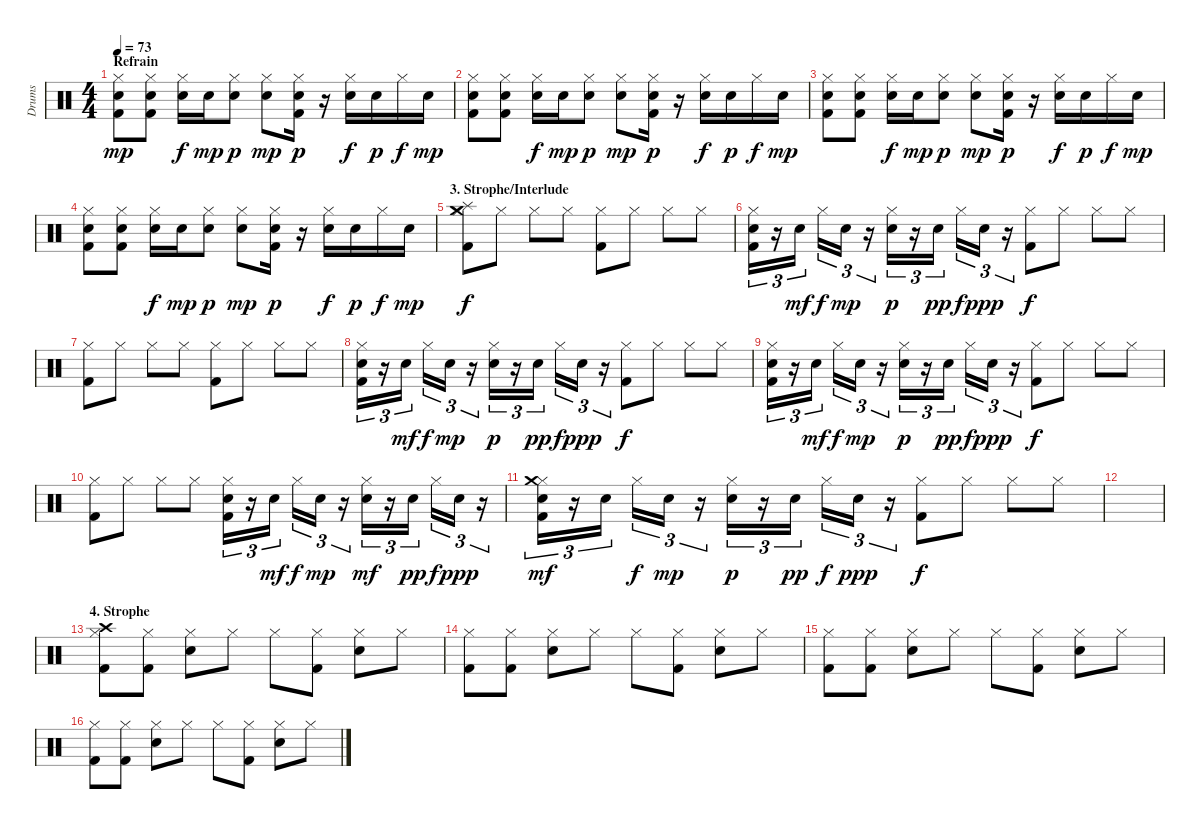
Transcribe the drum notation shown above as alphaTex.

\track ("Drums" "Drums") {instrument percussion}
\staff {score}
\articulation defaults
\ts (4 4)
\section ("" "Refrain")
\tempo 73
\clef neutral
\ks c
("Hi-Hat (closed)" "Electric Snare (hit)" "Kick (hit) 2").8{dy mp} ("Hi-Hat (closed)" "Electric Snare (hit)" "Kick (hit) 2").8 ("Hi-Hat (closed)" "Electric Snare (hit)").16{dy f} "Electric Snare (hit)".16{dy mp} ("Hi-Hat (closed)" "Electric Snare (hit)").8{dy p} ("Hi-Hat (closed)" "Electric Snare (hit)").8{dy mp} ("Hi-Hat (closed)" "Electric Snare (hit)" "Kick (hit) 2").16{dy p} r.16 ("Hi-Hat (closed)" "Electric Snare (hit)").16{dy f} "Electric Snare (hit)".16{dy p} "Hi-Hat (closed)".16{dy f} "Electric Snare (hit)".16{dy mp} |
("Hi-Hat (closed)" "Electric Snare (hit)" "Kick (hit) 2").8 ("Hi-Hat (closed)" "Electric Snare (hit)" "Kick (hit) 2").8 ("Hi-Hat (closed)" "Electric Snare (hit)").16{dy f} "Electric Snare (hit)".16{dy mp} ("Hi-Hat (closed)" "Electric Snare (hit)").8{dy p} ("Hi-Hat (closed)" "Electric Snare (hit)").8{dy mp} ("Hi-Hat (closed)" "Electric Snare (hit)" "Kick (hit) 2").16{dy p} r.16 ("Hi-Hat (closed)" "Electric Snare (hit)").16{dy f} "Electric Snare (hit)".16{dy p} "Hi-Hat (closed)".16{dy f} "Electric Snare (hit)".16{dy mp} |
("Hi-Hat (closed)" "Electric Snare (hit)" "Kick (hit) 2").8 ("Hi-Hat (closed)" "Electric Snare (hit)" "Kick (hit) 2").8 ("Hi-Hat (closed)" "Electric Snare (hit)").16{dy f} "Electric Snare (hit)".16{dy mp} ("Hi-Hat (closed)" "Electric Snare (hit)").8{dy p} ("Hi-Hat (closed)" "Electric Snare (hit)").8{dy mp} ("Hi-Hat (closed)" "Electric Snare (hit)" "Kick (hit) 2").16{dy p} r.16 ("Hi-Hat (closed)" "Electric Snare (hit)").16{dy f} "Electric Snare (hit)".16{dy p} "Hi-Hat (closed)".16{dy f} "Electric Snare (hit)".16{dy mp} |
("Hi-Hat (closed)" "Electric Snare (hit)" "Kick (hit) 2").8 ("Hi-Hat (closed)" "Electric Snare (hit)" "Kick (hit) 2").8 ("Hi-Hat (closed)" "Electric Snare (hit)").16{dy f} "Electric Snare (hit)".16{dy mp} ("Hi-Hat (closed)" "Electric Snare (hit)").8{dy p} ("Hi-Hat (closed)" "Electric Snare (hit)").8{dy mp} ("Hi-Hat (closed)" "Electric Snare (hit)" "Kick (hit) 2").16{dy p} r.16 ("Hi-Hat (closed)" "Electric Snare (hit)").16{dy f} "Electric Snare (hit)".16{dy p} "Hi-Hat (closed)".16{dy f} "Electric Snare (hit)".16{dy mp} |
\section ("" "3. Strophe/Interlude")
("Hi-Hat (closed)" "Crash medium (hit)" "Splash (hit)" "Kick (hit) 2").8{dy f} "Hi-Hat (closed)".8 "Hi-Hat (closed)".8 "Hi-Hat (closed)".8 ("Hi-Hat (closed)" "Kick (hit) 2").8 "Hi-Hat (closed)".8 "Hi-Hat (closed)".8 "Hi-Hat (closed)".8 |
("Hi-Hat (closed)" "Electric Snare (hit)" "Kick (hit) 2").16{tu (3 2)} r.16{tu (3 2)} "Electric Snare (hit)".16{tu (3 2) dy mf} "Hi-Hat (closed)".16{tu (3 2) dy f} "Electric Snare (hit)".16{tu (3 2) dy mp} r.16{tu (3 2)} ("Hi-Hat (closed)" "Electric Snare (hit)").16{tu (3 2) dy p} r.16{tu (3 2)} "Electric Snare (hit)".16{tu (3 2) dy pp} "Hi-Hat (closed)".16{tu (3 2) dy f} "Electric Snare (hit)".16{tu (3 2) dy ppp} r.16{tu (3 2)} ("Hi-Hat (closed)" "Kick (hit) 2").8{dy f} "Hi-Hat (closed)".8 "Hi-Hat (closed)".8 "Hi-Hat (closed)".8 |
("Hi-Hat (closed)" "Kick (hit) 2").8 "Hi-Hat (closed)".8 "Hi-Hat (closed)".8 "Hi-Hat (closed)".8 ("Hi-Hat (closed)" "Kick (hit) 2").8 "Hi-Hat (closed)".8 "Hi-Hat (closed)".8 "Hi-Hat (closed)".8 |
("Hi-Hat (closed)" "Electric Snare (hit)" "Kick (hit) 2").16{tu (3 2)} r.16{tu (3 2)} "Electric Snare (hit)".16{tu (3 2) dy mf} "Hi-Hat (closed)".16{tu (3 2) dy f} "Electric Snare (hit)".16{tu (3 2) dy mp} r.16{tu (3 2)} ("Hi-Hat (closed)" "Electric Snare (hit)").16{tu (3 2) dy p} r.16{tu (3 2)} "Electric Snare (hit)".16{tu (3 2) dy pp} "Hi-Hat (closed)".16{tu (3 2) dy f} "Electric Snare (hit)".16{tu (3 2) dy ppp} r.16{tu (3 2)} ("Hi-Hat (closed)" "Kick (hit) 2").8{dy f} "Hi-Hat (closed)".8 "Hi-Hat (closed)".8 "Hi-Hat (closed)".8 |
("Hi-Hat (closed)" "Electric Snare (hit)" "Kick (hit) 2").16{tu (3 2)} r.16{tu (3 2)} "Electric Snare (hit)".16{tu (3 2) dy mf} "Hi-Hat (closed)".16{tu (3 2) dy f} "Electric Snare (hit)".16{tu (3 2) dy mp} r.16{tu (3 2)} ("Hi-Hat (closed)" "Electric Snare (hit)").16{tu (3 2) dy p} r.16{tu (3 2)} "Electric Snare (hit)".16{tu (3 2) dy pp} "Hi-Hat (closed)".16{tu (3 2) dy f} "Electric Snare (hit)".16{tu (3 2) dy ppp} r.16{tu (3 2)} ("Hi-Hat (closed)" "Kick (hit) 2").8{dy f} "Hi-Hat (closed)".8 "Hi-Hat (closed)".8 "Hi-Hat (closed)".8 |
("Hi-Hat (closed)" "Kick (hit) 2").8 "Hi-Hat (closed)".8 "Hi-Hat (closed)".8 "Hi-Hat (closed)".8 ("Hi-Hat (closed)" "Electric Snare (hit)" "Kick (hit) 2").16{tu (3 2)} r.16{tu (3 2)} "Electric Snare (hit)".16{tu (3 2) dy mf} "Hi-Hat (closed)".16{tu (3 2) dy f} "Electric Snare (hit)".16{tu (3 2) dy mp} r.16{tu (3 2)} ("Hi-Hat (closed)" "Electric Snare (hit)").16{tu (3 2) dy mf} r.16{tu (3 2)} "Electric Snare (hit)".16{tu (3 2) dy pp} "Hi-Hat (closed)".16{tu (3 2) dy f} "Electric Snare (hit)".16{tu (3 2) dy ppp} r.16{tu (3 2)} |
("Hi-Hat (closed)" "Crash medium (hit)" "Electric Snare (hit)" "Kick (hit) 2").16{tu (3 2) dy mf} r.16{tu (3 2)} "Electric Snare (hit)".16{tu (3 2)} "Hi-Hat (closed)".16{tu (3 2) dy f} "Electric Snare (hit)".16{tu (3 2) dy mp} r.16{tu (3 2)} ("Hi-Hat (closed)" "Electric Snare (hit)").16{tu (3 2) dy p} r.16{tu (3 2)} "Electric Snare (hit)".16{tu (3 2) dy pp} "Hi-Hat (closed)".16{tu (3 2) dy f} "Electric Snare (hit)".16{tu (3 2) dy ppp} r.16{tu (3 2)} ("Hi-Hat (closed)" "Kick (hit) 2").8{dy f} "Hi-Hat (closed)".8 "Hi-Hat (closed)".8 "Hi-Hat (closed)".8 |
|
\section ("" "4. Strophe")
("Hi-Hat (closed)" "Crash high (hit)" "Kick (hit) 2").8 ("Hi-Hat (closed)" "Kick (hit) 2").8 ("Hi-Hat (closed)" "Electric Snare (hit)").8 "Hi-Hat (closed)".8 "Hi-Hat (closed)".8 ("Hi-Hat (closed)" "Kick (hit) 2").8 ("Hi-Hat (closed)" "Electric Snare (hit)").8 "Hi-Hat (closed)".8 |
("Hi-Hat (closed)" "Kick (hit) 2").8 ("Hi-Hat (closed)" "Kick (hit) 2").8 ("Hi-Hat (closed)" "Electric Snare (hit)").8 "Hi-Hat (closed)".8 "Hi-Hat (closed)".8 ("Hi-Hat (closed)" "Kick (hit) 2").8 ("Hi-Hat (closed)" "Electric Snare (hit)").8 "Hi-Hat (closed)".8 |
("Hi-Hat (closed)" "Kick (hit) 2").8 ("Hi-Hat (closed)" "Kick (hit) 2").8 ("Hi-Hat (closed)" "Electric Snare (hit)").8 "Hi-Hat (closed)".8 "Hi-Hat (closed)".8 ("Hi-Hat (closed)" "Kick (hit) 2").8 ("Hi-Hat (closed)" "Electric Snare (hit)").8 "Hi-Hat (closed)".8 |
("Hi-Hat (closed)" "Kick (hit) 2").8 ("Hi-Hat (closed)" "Kick (hit) 2").8 ("Hi-Hat (closed)" "Electric Snare (hit)").8 "Hi-Hat (closed)".8 "Hi-Hat (closed)".8 ("Hi-Hat (closed)" "Kick (hit) 2").8 ("Hi-Hat (closed)" "Electric Snare (hit)").8 "Hi-Hat (closed)".8
